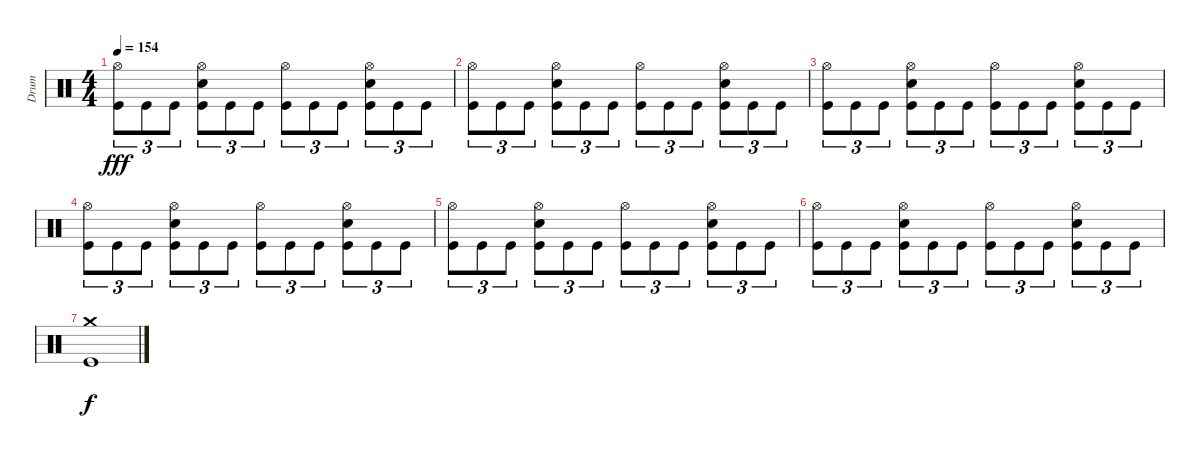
\track ("Drum" "Drum") {instrument percussion}
\staff {score}
\articulation defaults
\ts (4 4)
\tempo 154
\clef neutral
\ks c
("Hi-Hat (open)" "Kick (hit)").8{tu (3 2) dy fff} "Kick (hit)".8{tu (3 2)} "Kick (hit)".8{tu (3 2)} ("Hi-Hat (open)" "Snare (hit) 2" "Kick (hit)").8{tu (3 2)} "Kick (hit)".8{tu (3 2)} "Kick (hit)".8{tu (3 2)} ("Hi-Hat (open)" "Kick (hit)").8{tu (3 2)} "Kick (hit)".8{tu (3 2)} "Kick (hit)".8{tu (3 2)} ("Hi-Hat (open)" "Snare (hit) 2" "Kick (hit)").8{tu (3 2)} "Kick (hit)".8{tu (3 2)} "Kick (hit)".8{tu (3 2)} |
("Hi-Hat (open)" "Kick (hit)").8{tu (3 2)} "Kick (hit)".8{tu (3 2)} "Kick (hit)".8{tu (3 2)} ("Hi-Hat (open)" "Snare (hit) 2" "Kick (hit)").8{tu (3 2)} "Kick (hit)".8{tu (3 2)} "Kick (hit)".8{tu (3 2)} ("Hi-Hat (open)" "Kick (hit)").8{tu (3 2)} "Kick (hit)".8{tu (3 2)} "Kick (hit)".8{tu (3 2)} ("Hi-Hat (open)" "Snare (hit) 2" "Kick (hit)").8{tu (3 2)} "Kick (hit)".8{tu (3 2)} "Kick (hit)".8{tu (3 2)} |
("Hi-Hat (open)" "Kick (hit)").8{tu (3 2)} "Kick (hit)".8{tu (3 2)} "Kick (hit)".8{tu (3 2)} ("Hi-Hat (open)" "Snare (hit) 2" "Kick (hit)").8{tu (3 2)} "Kick (hit)".8{tu (3 2)} "Kick (hit)".8{tu (3 2)} ("Hi-Hat (open)" "Kick (hit)").8{tu (3 2)} "Kick (hit)".8{tu (3 2)} "Kick (hit)".8{tu (3 2)} ("Hi-Hat (open)" "Snare (hit) 2" "Kick (hit)").8{tu (3 2)} "Kick (hit)".8{tu (3 2)} "Kick (hit)".8{tu (3 2)} |
("Hi-Hat (open)" "Kick (hit)").8{tu (3 2)} "Kick (hit)".8{tu (3 2)} "Kick (hit)".8{tu (3 2)} ("Hi-Hat (open)" "Snare (hit) 2" "Kick (hit)").8{tu (3 2)} "Kick (hit)".8{tu (3 2)} "Kick (hit)".8{tu (3 2)} ("Hi-Hat (open)" "Kick (hit)").8{tu (3 2)} "Kick (hit)".8{tu (3 2)} "Kick (hit)".8{tu (3 2)} ("Hi-Hat (open)" "Snare (hit) 2" "Kick (hit)").8{tu (3 2)} "Kick (hit)".8{tu (3 2)} "Kick (hit)".8{tu (3 2)} |
("Hi-Hat (open)" "Kick (hit)").8{tu (3 2)} "Kick (hit)".8{tu (3 2)} "Kick (hit)".8{tu (3 2)} ("Hi-Hat (open)" "Snare (hit) 2" "Kick (hit)").8{tu (3 2)} "Kick (hit)".8{tu (3 2)} "Kick (hit)".8{tu (3 2)} ("Hi-Hat (open)" "Kick (hit)").8{tu (3 2)} "Kick (hit)".8{tu (3 2)} "Kick (hit)".8{tu (3 2)} ("Hi-Hat (open)" "Snare (hit) 2" "Kick (hit)").8{tu (3 2)} "Kick (hit)".8{tu (3 2)} "Kick (hit)".8{tu (3 2)} |
("Hi-Hat (open)" "Kick (hit)").8{tu (3 2)} "Kick (hit)".8{tu (3 2)} "Kick (hit)".8{tu (3 2)} ("Hi-Hat (open)" "Snare (hit) 2" "Kick (hit)").8{tu (3 2)} "Kick (hit)".8{tu (3 2)} "Kick (hit)".8{tu (3 2)} ("Hi-Hat (open)" "Kick (hit)").8{tu (3 2)} "Kick (hit)".8{tu (3 2)} "Kick (hit)".8{tu (3 2)} ("Hi-Hat (open)" "Snare (hit) 2" "Kick (hit)").8{tu (3 2)} "Kick (hit)".8{tu (3 2)} "Kick (hit)".8{tu (3 2)} |
("Crash medium (hit)" "Kick (hit)").1{dy f}
